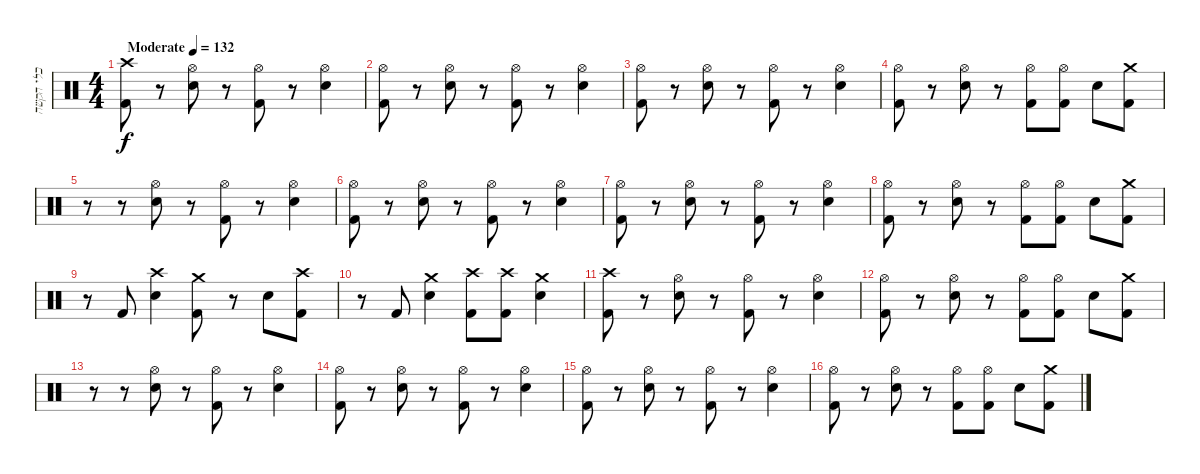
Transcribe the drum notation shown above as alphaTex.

\track ("כלי הקשה" "כלי הקשה") {instrument percussion}
\staff {score}
\articulation defaults
\ts (4 4)
\tempo (132 "Moderate")
\clef neutral
\ks c
("Crash high (hit)" "Kick (hit) 2").8{dy f} r.8 ("Hi-Hat (open)" "Electric Snare (hit)").8 r.8 ("Hi-Hat (open)" "Kick (hit) 2").8 r.8 ("Hi-Hat (open)" "Electric Snare (hit)").4 |
("Hi-Hat (open)" "Kick (hit) 2").8 r.8 ("Hi-Hat (open)" "Electric Snare (hit)").8 r.8 ("Hi-Hat (open)" "Kick (hit) 2").8 r.8 ("Hi-Hat (open)" "Electric Snare (hit)").4 |
("Hi-Hat (open)" "Kick (hit) 2").8 r.8 ("Hi-Hat (open)" "Electric Snare (hit)").8 r.8 ("Hi-Hat (open)" "Kick (hit) 2").8 r.8 ("Hi-Hat (open)" "Electric Snare (hit)").4 |
("Hi-Hat (open)" "Kick (hit) 2").8 r.8 ("Hi-Hat (open)" "Electric Snare (hit)").8 r.8 ("Hi-Hat (open)" "Kick (hit) 2").8 ("Hi-Hat (open)" "Kick (hit) 2").8 "Electric Snare (hit)".8 ("Crash medium (hit)" "Kick (hit) 2").8 |
r.8 r.8 ("Hi-Hat (open)" "Electric Snare (hit)").8 r.8 ("Hi-Hat (open)" "Kick (hit) 2").8 r.8 ("Hi-Hat (open)" "Electric Snare (hit)").4 |
("Hi-Hat (open)" "Kick (hit) 2").8 r.8 ("Hi-Hat (open)" "Electric Snare (hit)").8 r.8 ("Hi-Hat (open)" "Kick (hit) 2").8 r.8 ("Hi-Hat (open)" "Electric Snare (hit)").4 |
("Hi-Hat (open)" "Kick (hit) 2").8 r.8 ("Hi-Hat (open)" "Electric Snare (hit)").8 r.8 ("Hi-Hat (open)" "Kick (hit) 2").8 r.8 ("Hi-Hat (open)" "Electric Snare (hit)").4 |
("Hi-Hat (open)" "Kick (hit) 2").8 r.8 ("Hi-Hat (open)" "Electric Snare (hit)").8 r.8 ("Hi-Hat (open)" "Kick (hit) 2").8 ("Hi-Hat (open)" "Kick (hit) 2").8 "Electric Snare (hit)".8 ("Crash medium (hit)" "Kick (hit) 2").8 |
r.8 "Kick (hit) 2".8 ("Crash high (hit)" "Electric Snare (hit)").4 ("Crash medium (hit)" "Kick (hit) 2").8 r.8 "Electric Snare (hit)".8 ("Crash high (hit)" "Kick (hit) 2").8 |
r.8 "Kick (hit) 2".8 ("Crash medium (hit)" "Electric Snare (hit)").4 ("Crash high (hit)" "Kick (hit) 2").8 ("Crash high (hit)" "Kick (hit) 2").8 ("Crash medium (hit)" "Electric Snare (hit)").4 |
("Crash high (hit)" "Kick (hit) 2").8 r.8 ("Hi-Hat (open)" "Electric Snare (hit)").8 r.8 ("Hi-Hat (open)" "Kick (hit) 2").8 r.8 ("Hi-Hat (open)" "Electric Snare (hit)").4 |
("Hi-Hat (open)" "Kick (hit) 2").8 r.8 ("Hi-Hat (open)" "Electric Snare (hit)").8 r.8 ("Hi-Hat (open)" "Kick (hit) 2").8 ("Hi-Hat (open)" "Kick (hit) 2").8 "Electric Snare (hit)".8 ("Crash medium (hit)" "Kick (hit) 2").8 |
r.8 r.8 ("Hi-Hat (open)" "Electric Snare (hit)").8 r.8 ("Hi-Hat (open)" "Kick (hit) 2").8 r.8 ("Hi-Hat (open)" "Electric Snare (hit)").4 |
("Hi-Hat (open)" "Kick (hit) 2").8 r.8 ("Hi-Hat (open)" "Electric Snare (hit)").8 r.8 ("Hi-Hat (open)" "Kick (hit) 2").8 r.8 ("Hi-Hat (open)" "Electric Snare (hit)").4 |
("Hi-Hat (open)" "Kick (hit) 2").8 r.8 ("Hi-Hat (open)" "Electric Snare (hit)").8 r.8 ("Hi-Hat (open)" "Kick (hit) 2").8 r.8 ("Hi-Hat (open)" "Electric Snare (hit)").4 |
("Hi-Hat (open)" "Kick (hit) 2").8 r.8 ("Hi-Hat (open)" "Electric Snare (hit)").8 r.8 ("Hi-Hat (open)" "Kick (hit) 2").8 ("Hi-Hat (open)" "Kick (hit) 2").8 "Electric Snare (hit)".8 ("Crash medium (hit)" "Kick (hit) 2").8
